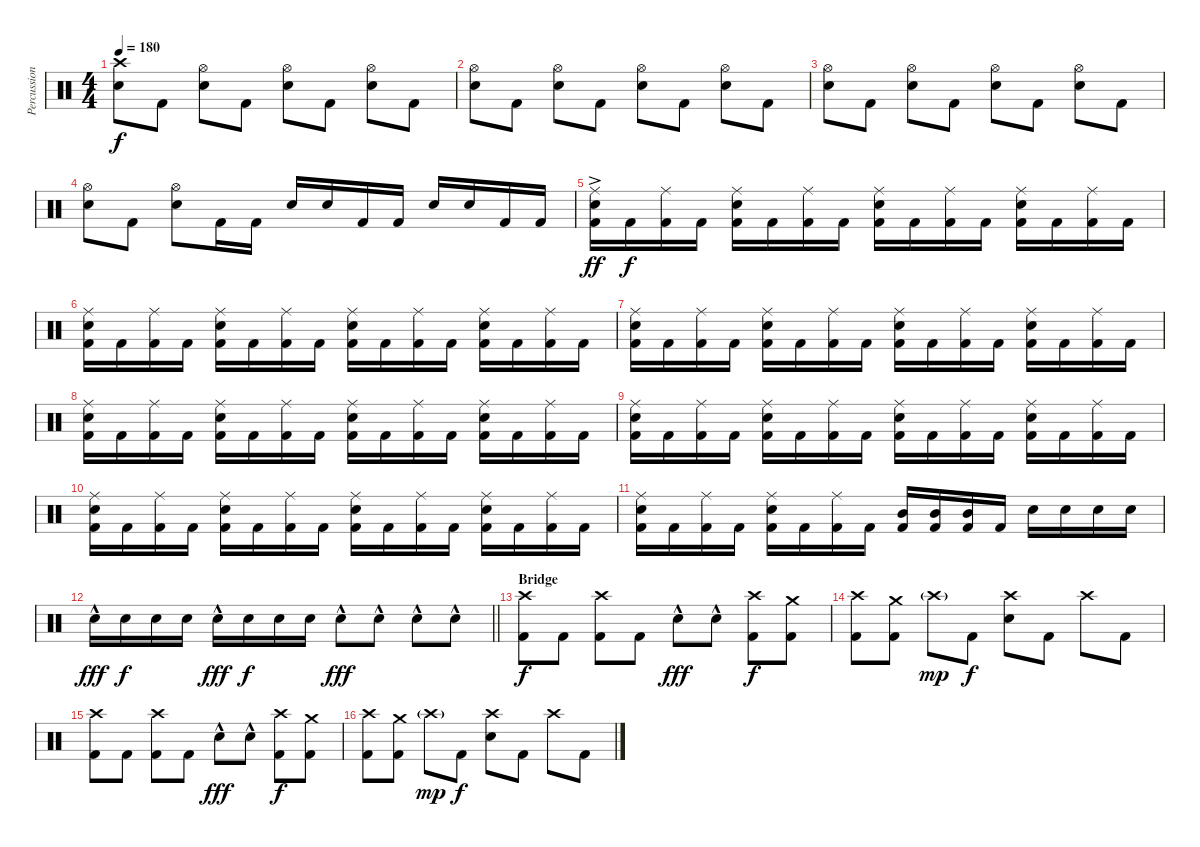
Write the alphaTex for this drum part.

\track ("Percussion" "Percussion") {instrument percussion}
\staff {score}
\articulation defaults
\ts (4 4)
\tempo 180
\clef neutral
\ks c
("Crash high (hit)" "Electric Snare (hit)").8{dy f} "Kick (hit) 2".8 ("Hi-Hat (open)" "Electric Snare (hit)").8 "Kick (hit) 2".8 ("Hi-Hat (open)" "Electric Snare (hit)").8 "Kick (hit) 2".8 ("Hi-Hat (open)" "Electric Snare (hit)").8 "Kick (hit) 2".8 |
("Hi-Hat (open)" "Electric Snare (hit)").8 "Kick (hit) 2".8 ("Hi-Hat (open)" "Electric Snare (hit)").8 "Kick (hit) 2".8 ("Hi-Hat (open)" "Electric Snare (hit)").8 "Kick (hit) 2".8 ("Hi-Hat (open)" "Electric Snare (hit)").8 "Kick (hit) 2".8 |
("Hi-Hat (open)" "Electric Snare (hit)").8 "Kick (hit) 2".8 ("Hi-Hat (open)" "Electric Snare (hit)").8 "Kick (hit) 2".8 ("Hi-Hat (open)" "Electric Snare (hit)").8 "Kick (hit) 2".8 ("Hi-Hat (open)" "Electric Snare (hit)").8 "Kick (hit) 2".8 |
("Hi-Hat (open)" "Electric Snare (hit)").8 "Kick (hit) 2".8 ("Hi-Hat (open)" "Electric Snare (hit)").8 "Kick (hit) 2".16 "Kick (hit) 2".16 "Electric Snare (hit)".16 "Electric Snare (hit)".16 "Kick (hit) 2".16 "Kick (hit) 2".16 "Electric Snare (hit)".16 "Electric Snare (hit)".16 "Kick (hit) 2".16 "Kick (hit) 2".16 |
("Ride (middle)"{ac} "Electric Snare (hit)"{ac} "Kick (hit) 2").16{dy ff} "Kick (hit) 2".16{dy f} ("Ride (middle)" "Kick (hit) 2").16 "Kick (hit) 2".16 ("Ride (middle)" "Electric Snare (hit)" "Kick (hit) 2").16 "Kick (hit) 2".16 ("Ride (middle)" "Kick (hit) 2").16 "Kick (hit) 2".16 ("Ride (middle)" "Electric Snare (hit)" "Kick (hit) 2").16 "Kick (hit) 2".16 ("Ride (middle)" "Kick (hit) 2").16 "Kick (hit) 2".16 ("Ride (middle)" "Electric Snare (hit)" "Kick (hit) 2").16 "Kick (hit) 2".16 ("Ride (middle)" "Kick (hit) 2").16 "Kick (hit) 2".16 |
("Ride (middle)" "Electric Snare (hit)" "Kick (hit) 2").16 "Kick (hit) 2".16 ("Ride (middle)" "Kick (hit) 2").16 "Kick (hit) 2".16 ("Ride (middle)" "Electric Snare (hit)" "Kick (hit) 2").16 "Kick (hit) 2".16 ("Ride (middle)" "Kick (hit) 2").16 "Kick (hit) 2".16 ("Ride (middle)" "Electric Snare (hit)" "Kick (hit) 2").16 "Kick (hit) 2".16 ("Ride (middle)" "Kick (hit) 2").16 "Kick (hit) 2".16 ("Ride (middle)" "Electric Snare (hit)" "Kick (hit) 2").16 "Kick (hit) 2".16 ("Ride (middle)" "Kick (hit) 2").16 "Kick (hit) 2".16 |
("Ride (middle)" "Electric Snare (hit)" "Kick (hit) 2").16 "Kick (hit) 2".16 ("Ride (middle)" "Kick (hit) 2").16 "Kick (hit) 2".16 ("Ride (middle)" "Electric Snare (hit)" "Kick (hit) 2").16 "Kick (hit) 2".16 ("Ride (middle)" "Kick (hit) 2").16 "Kick (hit) 2".16 ("Ride (middle)" "Electric Snare (hit)" "Kick (hit) 2").16 "Kick (hit) 2".16 ("Ride (middle)" "Kick (hit) 2").16 "Kick (hit) 2".16 ("Ride (middle)" "Electric Snare (hit)" "Kick (hit) 2").16 "Kick (hit) 2".16 ("Ride (middle)" "Kick (hit) 2").16 "Kick (hit) 2".16 |
("Ride (middle)" "Electric Snare (hit)" "Kick (hit) 2").16 "Kick (hit) 2".16 ("Ride (middle)" "Kick (hit) 2").16 "Kick (hit) 2".16 ("Ride (middle)" "Electric Snare (hit)" "Kick (hit) 2").16 "Kick (hit) 2".16 ("Ride (middle)" "Kick (hit) 2").16 "Kick (hit) 2".16 ("Ride (middle)" "Electric Snare (hit)" "Kick (hit) 2").16 "Kick (hit) 2".16 ("Ride (middle)" "Kick (hit) 2").16 "Kick (hit) 2".16 ("Ride (middle)" "Electric Snare (hit)" "Kick (hit) 2").16 "Kick (hit) 2".16 ("Ride (middle)" "Kick (hit) 2").16 "Kick (hit) 2".16 |
("Ride (middle)" "Electric Snare (hit)" "Kick (hit) 2").16 "Kick (hit) 2".16 ("Ride (middle)" "Kick (hit) 2").16 "Kick (hit) 2".16 ("Ride (middle)" "Electric Snare (hit)" "Kick (hit) 2").16 "Kick (hit) 2".16 ("Ride (middle)" "Kick (hit) 2").16 "Kick (hit) 2".16 ("Ride (middle)" "Electric Snare (hit)" "Kick (hit) 2").16 "Kick (hit) 2".16 ("Ride (middle)" "Kick (hit) 2").16 "Kick (hit) 2".16 ("Ride (middle)" "Electric Snare (hit)" "Kick (hit) 2").16 "Kick (hit) 2".16 ("Ride (middle)" "Kick (hit) 2").16 "Kick (hit) 2".16 |
("Ride (middle)" "Electric Snare (hit)" "Kick (hit) 2").16 "Kick (hit) 2".16 ("Ride (middle)" "Kick (hit) 2").16 "Kick (hit) 2".16 ("Ride (middle)" "Electric Snare (hit)" "Kick (hit) 2").16 "Kick (hit) 2".16 ("Ride (middle)" "Kick (hit) 2").16 "Kick (hit) 2".16 ("Ride (middle)" "Electric Snare (hit)" "Kick (hit) 2").16 "Kick (hit) 2".16 ("Ride (middle)" "Kick (hit) 2").16 "Kick (hit) 2".16 ("Ride (middle)" "Electric Snare (hit)" "Kick (hit) 2").16 "Kick (hit) 2".16 ("Ride (middle)" "Kick (hit) 2").16 "Kick (hit) 2".16 |
("Ride (middle)" "Electric Snare (hit)" "Kick (hit) 2").16 "Kick (hit) 2".16 ("Ride (middle)" "Kick (hit) 2").16 "Kick (hit) 2".16 ("Ride (middle)" "Electric Snare (hit)" "Kick (hit) 2").16 "Kick (hit) 2".16 ("Ride (middle)" "Kick (hit) 2").16 "Kick (hit) 2".16 ("Mid Tom (hit)" "Kick (hit) 2").16 ("Mid Tom (hit)" "Kick (hit) 2").16 ("Mid Tom (hit)" "Kick (hit) 2").16 "Kick (hit) 2".16 "Electric Snare (hit)".16 "Electric Snare (hit)".16 "Electric Snare (hit)".16 "Electric Snare (hit)".16 |
\barLineRight lightlight "Electric Snare (hit)"{hac}.16{dy fff} "Electric Snare (hit)".16{dy f} "Electric Snare (hit)".16 "Electric Snare (hit)".16 "Electric Snare (hit)"{hac}.16{dy fff} "Electric Snare (hit)".16{dy f} "Electric Snare (hit)".16 "Electric Snare (hit)".16 "Electric Snare (hit)"{hac}.8{dy fff} "Electric Snare (hit)"{hac}.8 "Electric Snare (hit)"{hac}.8 "Electric Snare (hit)"{hac}.8
|
\section ("" "Bridge")
("Crash high (hit)" "Kick (hit) 2").8{dy f} "Kick (hit) 2".8 ("Crash high (hit)" "Kick (hit) 2").8 "Kick (hit) 2".8 "Electric Snare (hit)"{hac}.8{dy fff} "Electric Snare (hit)"{hac}.8 ("Crash high (hit)" "Kick (hit) 2").8{dy f} ("Crash medium (hit)" "Kick (hit) 2").8 |
("Crash high (hit)" "Kick (hit) 2").8 ("Crash medium (hit)" "Kick (hit) 2").8 "Crash high (hit)"{g}.8{dy mp} "Kick (hit) 2".8{dy f} ("Crash high (hit)" "Electric Snare (hit)").8 "Kick (hit) 2".8 "Crash high (hit)".8 "Kick (hit) 2".8 |
("Crash high (hit)" "Kick (hit) 2").8 "Kick (hit) 2".8 ("Crash high (hit)" "Kick (hit) 2").8 "Kick (hit) 2".8 "Electric Snare (hit)"{hac}.8{dy fff} "Electric Snare (hit)"{hac}.8 ("Crash high (hit)" "Kick (hit) 2").8{dy f} ("Crash medium (hit)" "Kick (hit) 2").8 |
("Crash high (hit)" "Kick (hit) 2").8 ("Crash medium (hit)" "Kick (hit) 2").8 "Crash high (hit)"{g}.8{dy mp} "Kick (hit) 2".8{dy f} ("Crash high (hit)" "Electric Snare (hit)").8 "Kick (hit) 2".8 "Crash high (hit)".8 "Kick (hit) 2".8
